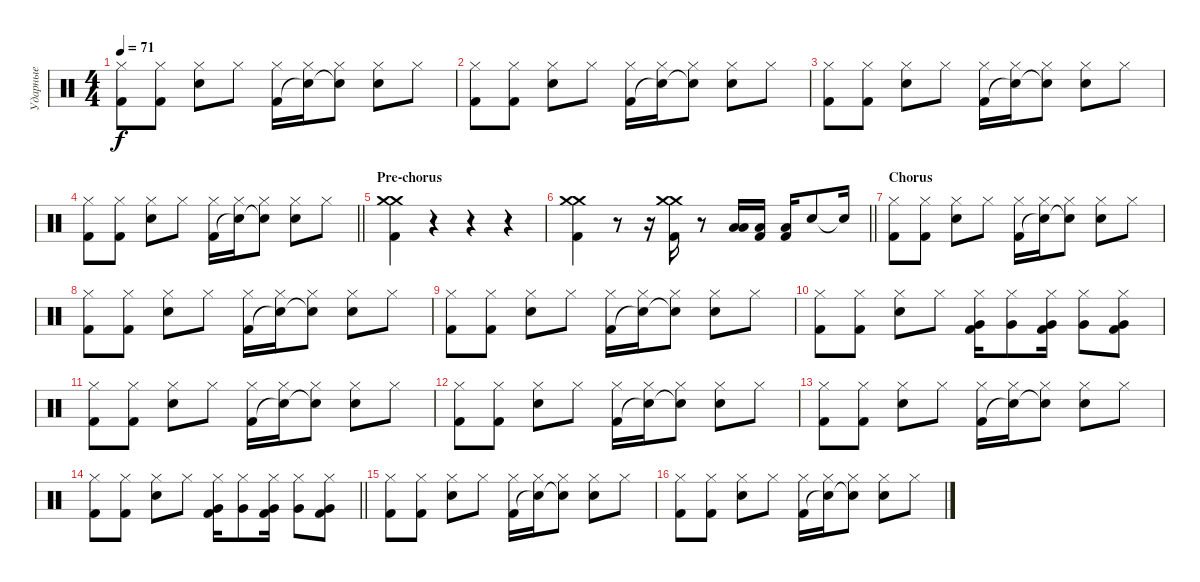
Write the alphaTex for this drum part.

\track ("Ударные" "Ударные") {instrument percussion}
\staff {score}
\articulation defaults
\ts (4 4)
\tempo 71
\clef neutral
\ks c
("Kick (hit) 2" "Hi-Hat (closed)").8{dy f} ("Kick (hit) 2" "Hi-Hat (closed)").8 ("Electric Snare (hit)" "Hi-Hat (closed)").8 "Hi-Hat (closed)".8 ("Kick (hit) 2" "Hi-Hat (closed)").16 ("Snare (hit)"{t} "Hi-Hat (closed)").16 ("Snare (hit)"{t} "Hi-Hat (closed)").8 ("Electric Snare (hit)" "Hi-Hat (closed)").8 "Hi-Hat (closed)".8 |
("Kick (hit) 2" "Hi-Hat (closed)").8 ("Kick (hit) 2" "Hi-Hat (closed)").8 ("Electric Snare (hit)" "Hi-Hat (closed)").8 "Hi-Hat (closed)".8 ("Kick (hit) 2" "Hi-Hat (closed)").16 ("Snare (hit)"{t} "Hi-Hat (closed)").16 ("Snare (hit)"{t} "Hi-Hat (closed)").8 ("Electric Snare (hit)" "Hi-Hat (closed)").8 "Hi-Hat (closed)".8 |
("Kick (hit) 2" "Hi-Hat (closed)").8 ("Kick (hit) 2" "Hi-Hat (closed)").8 ("Electric Snare (hit)" "Hi-Hat (closed)").8 "Hi-Hat (closed)".8 ("Kick (hit) 2" "Hi-Hat (closed)").16 ("Snare (hit)"{t} "Hi-Hat (closed)").16 ("Snare (hit)"{t} "Hi-Hat (closed)").8 ("Electric Snare (hit)" "Hi-Hat (closed)").8 "Hi-Hat (closed)".8 |
\barLineRight lightlight
("Kick (hit) 2" "Hi-Hat (closed)").8 ("Kick (hit) 2" "Hi-Hat (closed)").8 ("Electric Snare (hit)" "Hi-Hat (closed)").8 "Hi-Hat (closed)".8 ("Kick (hit) 2" "Hi-Hat (closed)").16 ("Snare (hit)"{t} "Hi-Hat (closed)").16 ("Snare (hit)"{t} "Hi-Hat (closed)").8 ("Electric Snare (hit)" "Hi-Hat (closed)").8 "Hi-Hat (closed)".8 |
\section ("" "Pre-chorus")
("Crash medium (hit)" "Crash medium (hit)" "Kick (hit) 2").4 r.4 r.4 r.4 |
\barLineRight lightlight
("Crash medium (hit)" "Crash medium (hit)" "Kick (hit) 2").4 r.8 r.16 ("Crash medium (hit)" "Crash medium (hit)" "Kick (hit) 2").16 r.8 ("Low Tom (hit)" "Low Tom (hit)").16 ("Low Tom (hit)" "Kick (hit) 2").16 ("Low Tom (hit)" "Kick (hit) 2").16 "Electric Snare (hit)".8 "Snare (hit)"{t}.16 |
\section ("" "Chorus")
("Kick (hit) 2" "Hi-Hat (closed)").8 ("Kick (hit) 2" "Hi-Hat (closed)").8 ("Electric Snare (hit)" "Hi-Hat (closed)").8 "Hi-Hat (closed)".8 ("Kick (hit) 2" "Hi-Hat (closed)").16 ("Snare (hit)"{t} "Hi-Hat (closed)").16 ("Snare (hit)"{t} "Hi-Hat (closed)").8 ("Electric Snare (hit)" "Hi-Hat (closed)").8 "Hi-Hat (closed)".8 |
("Kick (hit) 2" "Hi-Hat (closed)").8 ("Kick (hit) 2" "Hi-Hat (closed)").8 ("Electric Snare (hit)" "Hi-Hat (closed)").8 "Hi-Hat (closed)".8 ("Kick (hit) 2" "Hi-Hat (closed)").16 ("Snare (hit)"{t} "Hi-Hat (closed)").16 ("Snare (hit)"{t} "Hi-Hat (closed)").8 ("Electric Snare (hit)" "Hi-Hat (closed)").8 "Hi-Hat (closed)".8 |
("Kick (hit) 2" "Hi-Hat (closed)").8 ("Kick (hit) 2" "Hi-Hat (closed)").8 ("Electric Snare (hit)" "Hi-Hat (closed)").8 "Hi-Hat (closed)".8 ("Kick (hit) 2" "Hi-Hat (closed)").16 ("Snare (hit)"{t} "Hi-Hat (closed)").16 ("Snare (hit)"{t} "Hi-Hat (closed)").8 ("Electric Snare (hit)" "Hi-Hat (closed)").8 "Hi-Hat (closed)".8 |
("Kick (hit) 2" "Hi-Hat (closed)").8 ("Kick (hit) 2" "Hi-Hat (closed)").8 ("Electric Snare (hit)" "Hi-Hat (closed)").8 "Hi-Hat (closed)".8 ("Kick (hit) 2" "Very Low Tom (hit)" "Hi-Hat (closed)").16 ("Very Low Tom (hit)" "Hi-Hat (closed)").8 ("Kick (hit) 2" "Very Low Tom (hit)" "Hi-Hat (closed)").16 ("Very Low Tom (hit)" "Hi-Hat (closed)").8 ("Kick (hit) 2" "Very Low Tom (hit)" "Hi-Hat (closed)").8 |
("Kick (hit) 2" "Hi-Hat (closed)").8 ("Kick (hit) 2" "Hi-Hat (closed)").8 ("Electric Snare (hit)" "Hi-Hat (closed)").8 "Hi-Hat (closed)".8 ("Kick (hit) 2" "Hi-Hat (closed)").16 ("Snare (hit)"{t} "Hi-Hat (closed)").16 ("Snare (hit)"{t} "Hi-Hat (closed)").8 ("Electric Snare (hit)" "Hi-Hat (closed)").8 "Hi-Hat (closed)".8 |
("Kick (hit) 2" "Hi-Hat (closed)").8 ("Kick (hit) 2" "Hi-Hat (closed)").8 ("Electric Snare (hit)" "Hi-Hat (closed)").8 "Hi-Hat (closed)".8 ("Kick (hit) 2" "Hi-Hat (closed)").16 ("Snare (hit)"{t} "Hi-Hat (closed)").16 ("Snare (hit)"{t} "Hi-Hat (closed)").8 ("Electric Snare (hit)" "Hi-Hat (closed)").8 "Hi-Hat (closed)".8 |
("Kick (hit) 2" "Hi-Hat (closed)").8 ("Kick (hit) 2" "Hi-Hat (closed)").8 ("Electric Snare (hit)" "Hi-Hat (closed)").8 "Hi-Hat (closed)".8 ("Kick (hit) 2" "Hi-Hat (closed)").16 ("Snare (hit)"{t} "Hi-Hat (closed)").16 ("Snare (hit)"{t} "Hi-Hat (closed)").8 ("Electric Snare (hit)" "Hi-Hat (closed)").8 "Hi-Hat (closed)".8 |
\barLineRight lightlight
("Kick (hit) 2" "Hi-Hat (closed)").8 ("Kick (hit) 2" "Hi-Hat (closed)").8 ("Electric Snare (hit)" "Hi-Hat (closed)").8 "Hi-Hat (closed)".8 ("Kick (hit) 2" "Very Low Tom (hit)" "Hi-Hat (closed)").16 ("Very Low Tom (hit)" "Hi-Hat (closed)").8 ("Kick (hit) 2" "Very Low Tom (hit)" "Hi-Hat (closed)").16 ("Very Low Tom (hit)" "Hi-Hat (closed)").8 ("Kick (hit) 2" "Very Low Tom (hit)" "Hi-Hat (closed)").8 |
("Kick (hit) 2" "Hi-Hat (closed)").8 ("Kick (hit) 2" "Hi-Hat (closed)").8 ("Electric Snare (hit)" "Hi-Hat (closed)").8 "Hi-Hat (closed)".8 ("Kick (hit) 2" "Hi-Hat (closed)").16 ("Snare (hit)"{t} "Hi-Hat (closed)").16 ("Snare (hit)"{t} "Hi-Hat (closed)").8 ("Electric Snare (hit)" "Hi-Hat (closed)").8 "Hi-Hat (closed)".8 |
("Kick (hit) 2" "Hi-Hat (closed)").8 ("Kick (hit) 2" "Hi-Hat (closed)").8 ("Electric Snare (hit)" "Hi-Hat (closed)").8 "Hi-Hat (closed)".8 ("Kick (hit) 2" "Hi-Hat (closed)").16 ("Snare (hit)"{t} "Hi-Hat (closed)").16 ("Snare (hit)"{t} "Hi-Hat (closed)").8 ("Electric Snare (hit)" "Hi-Hat (closed)").8 "Hi-Hat (closed)".8
